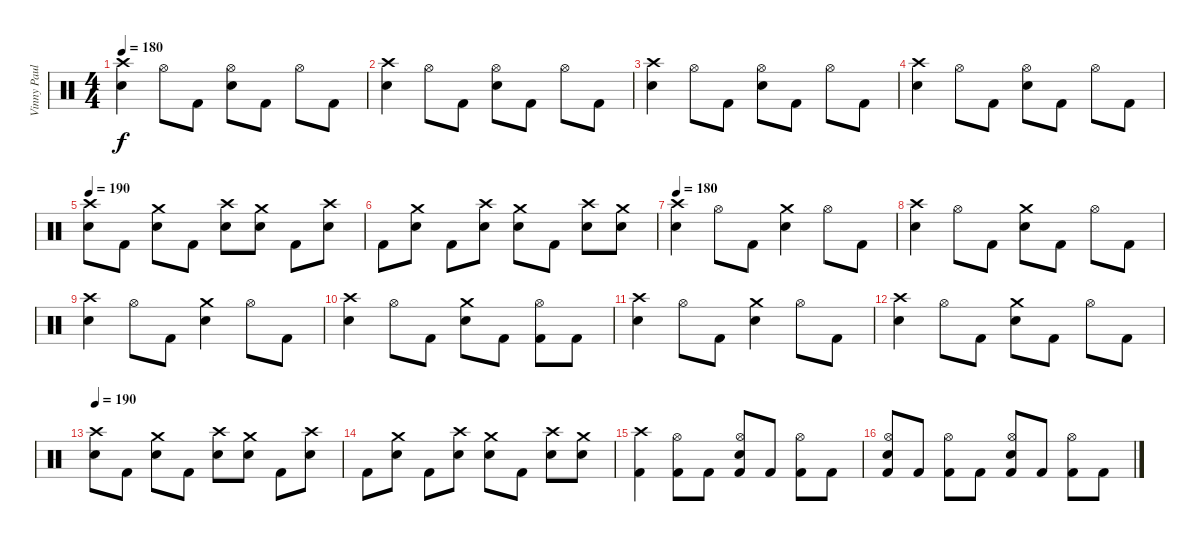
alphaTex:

\track ("Vinny Paul" "Vinny Paul") {instrument percussion}
\staff {score}
\articulation defaults
\ts (4 4)
\tempo 180
\clef neutral
\ks c
("Crash high (hit)" "Electric Snare (hit)").4{dy f} "Hi-Hat (open)".8 "Kick (hit) 2".8 ("Hi-Hat (open)" "Electric Snare (hit)").8 "Kick (hit) 2".8 "Hi-Hat (open)".8 "Kick (hit) 2".8 |
("Crash high (hit)" "Electric Snare (hit)").4 "Hi-Hat (open)".8 "Kick (hit) 2".8 ("Hi-Hat (open)" "Electric Snare (hit)").8 "Kick (hit) 2".8 "Hi-Hat (open)".8 "Kick (hit) 2".8 |
("Crash high (hit)" "Electric Snare (hit)").4 "Hi-Hat (open)".8 "Kick (hit) 2".8 ("Hi-Hat (open)" "Electric Snare (hit)").8 "Kick (hit) 2".8 "Hi-Hat (open)".8 "Kick (hit) 2".8 |
("Crash high (hit)" "Electric Snare (hit)").4 "Hi-Hat (open)".8 "Kick (hit) 2".8 ("Hi-Hat (open)" "Electric Snare (hit)").8 "Kick (hit) 2".8 "Hi-Hat (open)".8 "Kick (hit) 2".8 |
\tempo 190
("Crash high (hit)" "Electric Snare (hit)").8 "Kick (hit) 2".8 ("Crash medium (hit)" "Electric Snare (hit)").8 "Kick (hit) 2".8 ("Crash high (hit)" "Electric Snare (hit)").8 ("Crash medium (hit)" "Electric Snare (hit)").8 "Kick (hit) 2".8 ("Crash high (hit)" "Electric Snare (hit)").8 |
"Kick (hit) 2".8 ("Crash medium (hit)" "Electric Snare (hit)").8 "Kick (hit) 2".8 ("Crash high (hit)" "Electric Snare (hit)").8 ("Crash medium (hit)" "Electric Snare (hit)").8 "Kick (hit) 2".8 ("Crash high (hit)" "Electric Snare (hit)").8 ("Crash medium (hit)" "Electric Snare (hit)").8 |
\tempo 180
("Crash high (hit)" "Electric Snare (hit)").4 "Hi-Hat (open)".8 "Kick (hit) 2".8 ("Crash medium (hit)" "Electric Snare (hit)").4 "Hi-Hat (open)".8 "Kick (hit) 2".8 |
("Crash high (hit)" "Electric Snare (hit)").4 "Hi-Hat (open)".8 "Kick (hit) 2".8 ("Crash medium (hit)" "Electric Snare (hit)").8 "Kick (hit) 2".8 "Hi-Hat (open)".8 "Kick (hit) 2".8 |
("Crash high (hit)" "Electric Snare (hit)").4 "Hi-Hat (open)".8 "Kick (hit) 2".8 ("Crash medium (hit)" "Electric Snare (hit)").4 "Hi-Hat (open)".8 "Kick (hit) 2".8 |
("Crash high (hit)" "Electric Snare (hit)").4 "Hi-Hat (open)".8 "Kick (hit) 2".8 ("Crash medium (hit)" "Electric Snare (hit)").8 "Kick (hit) 2".8 ("Hi-Hat (open)" "Kick (hit) 2").8 "Kick (hit) 2".8 |
("Crash high (hit)" "Electric Snare (hit)").4 "Hi-Hat (open)".8 "Kick (hit) 2".8 ("Crash medium (hit)" "Electric Snare (hit)").4 "Hi-Hat (open)".8 "Kick (hit) 2".8 |
("Crash high (hit)" "Electric Snare (hit)").4 "Hi-Hat (open)".8 "Kick (hit) 2".8 ("Crash medium (hit)" "Electric Snare (hit)").8 "Kick (hit) 2".8 "Hi-Hat (open)".8 "Kick (hit) 2".8 |
\tempo 190
("Crash high (hit)" "Electric Snare (hit)").8 "Kick (hit) 2".8 ("Crash medium (hit)" "Electric Snare (hit)").8 "Kick (hit) 2".8 ("Crash high (hit)" "Electric Snare (hit)").8 ("Crash medium (hit)" "Electric Snare (hit)").8 "Kick (hit) 2".8 ("Crash high (hit)" "Electric Snare (hit)").8 |
"Kick (hit) 2".8 ("Crash medium (hit)" "Electric Snare (hit)").8 "Kick (hit) 2".8 ("Crash high (hit)" "Electric Snare (hit)").8 ("Crash medium (hit)" "Electric Snare (hit)").8 "Kick (hit) 2".8 ("Crash high (hit)" "Electric Snare (hit)").8 ("Crash medium (hit)" "Electric Snare (hit)").8 |
("Crash high (hit)" "Kick (hit) 2").4 ("Hi-Hat (open)" "Kick (hit) 2").8 "Kick (hit) 2".8 ("Hi-Hat (open)" "Electric Snare (hit)" "Kick (hit) 2").8 "Kick (hit) 2".8 ("Hi-Hat (open)" "Kick (hit) 2").8 "Kick (hit) 2".8 |
("Hi-Hat (open)" "Electric Snare (hit)" "Kick (hit) 2").8 "Kick (hit) 2".8 ("Hi-Hat (open)" "Kick (hit) 2").8 "Kick (hit) 2".8 ("Hi-Hat (open)" "Electric Snare (hit)" "Kick (hit) 2").8 "Kick (hit) 2".8 ("Hi-Hat (open)" "Kick (hit) 2").8 "Kick (hit) 2".8
